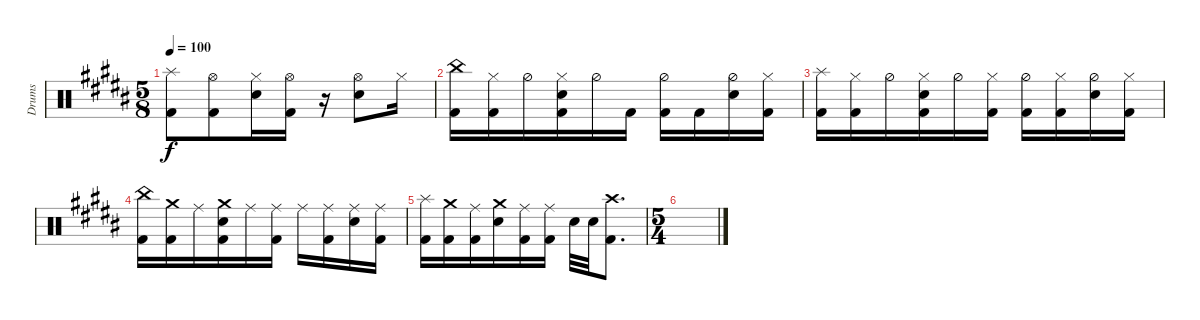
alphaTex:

\bracketExtendMode groupsimilarinstruments
\otherSystemsTrackNameOrientation horizontal
\track ("Drumkit" "Drums") {instrument percussion}
\staff {score}
\articulation defaults
\ts (5 8)
\tempo 100
\clef neutral
\ks b
("Kick (hit) 2"{acc bb} "Splash (hit)"{acc bb}).8{dy f} ("Hi-Hat (open)"{acc bb} "Kick (hit) 2"{acc bb}).8 ("Hi-Hat (closed)"{acc bb} "Snare (hit) 2"{acc bb}).16 ("Hi-Hat (open)"{acc bb} "Kick (hit) 2"{acc bb}).16 r.16 ("Hi-Hat (open)"{acc bb} "Snare (hit) 2"{acc bb}).8 "Hi-Hat (closed)"{acc bb}.16 |
("Kick (hit) 2"{acc bb} "China (hit)"{acc bb}).16 ("Kick (hit) 2"{acc bb} "Hi-Hat (closed)"{acc bb}).16 "Hi-Hat (half)"{acc bb}.16 ("Kick (hit) 2"{acc bb} "Snare (hit) 2"{acc bb} "Hi-Hat (closed)"{acc bb}).16 "Hi-Hat (half)"{acc bb}.16 "Kick (hit) 2"{acc bb}.16 ("Kick (hit) 2"{acc bb} "Hi-Hat (half)"{acc bb}).16 "Kick (hit) 2"{acc bb}.16 ("Snare (hit) 2"{acc bb} "Hi-Hat (half)"{acc bb}).16 ("Kick (hit) 2"{acc bb} "Hi-Hat (closed)"{acc bb}).16 |
("Splash (hit)"{acc bb} "Kick (hit) 2"{acc bb}).16 ("Kick (hit) 2"{acc bb} "Hi-Hat (closed)"{acc bb}).16 "Hi-Hat (half)"{acc bb}.16 ("Kick (hit) 2"{acc bb} "Snare (hit) 2"{acc bb} "Hi-Hat (closed)"{acc bb}).16 "Hi-Hat (half)"{acc bb}.16 ("Kick (hit) 2"{acc bb} "Hi-Hat (closed)"{acc bb}).16 ("Kick (hit) 2"{acc bb} "Hi-Hat (half)"{acc bb}).16 ("Kick (hit) 2"{acc bb} "Hi-Hat (closed)"{acc bb}).16 ("Snare (hit) 2"{acc bb} "Hi-Hat (half)"{acc bb}).16 ("Kick (hit) 2"{acc bb} "Hi-Hat (closed)"{acc bb}).16 |
("Kick (hit) 2"{acc bb} "China (hit)"{acc bb}).16 ("Kick (hit) 2"{acc bb} "Crash medium (hit)"{acc bb}).16 "Ride (middle)"{acc bb}.16 ("Kick (hit) 2"{acc bb} "Snare (hit) 2"{acc bb} "Crash medium (hit)"{acc bb}).16 "Ride (middle)"{acc bb}.16 ("Kick (hit) 2"{acc bb} "Ride (middle)"{acc bb}).16 "Ride (middle)"{acc bb}.16 ("Kick (hit) 2"{acc bb} "Ride (middle)"{acc bb}).16 ("Ride (middle)"{acc bb} "Snare (hit) 2"{acc bb}).16 ("Kick (hit) 2"{acc bb} "Ride (middle)"{acc bb}).16 |
("Splash (hit)"{acc bb} "Kick (hit) 2"{acc bb}).16 ("Kick (hit) 2"{acc bb} "Crash medium (hit)"{acc bb}).16 ("Ride (middle)"{acc bb} "Kick (hit) 2"{acc bb}).16 ("Snare (hit) 2"{acc bb} "Crash medium (hit)"{acc bb}).16 ("Ride (middle)"{acc bb} "Kick (hit) 2"{acc bb}).16 ("Kick (hit) 2"{acc bb} "Ride (middle)"{acc bb}).16 "Snare (hit) 2"{acc bb}.32 "Snare (hit) 2"{acc bb}.32 ("Crash high (hit)"{acc bb} "Kick (hit) 2"{acc bb}).8{d} |
\ts (5 4)
